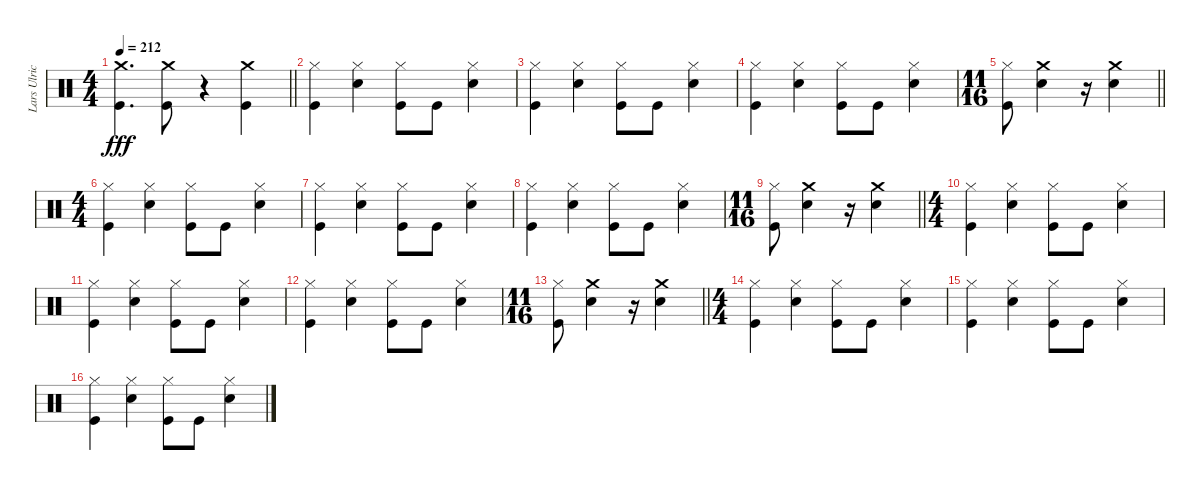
\track ("Lars Ulrich" "Lars Ulric") {instrument percussion}
\staff {score}
\articulation defaults
\ts (4 4)
\tempo 212
\clef neutral
\barLineRight lightlight
\ks c
("Crash medium (hit)" "Kick (hit)").4{d dy fff} ("Crash medium (hit)" "Kick (hit)").8 r.4 ("Kick (hit)" "Crash medium (hit)").4 |
("Hi-Hat (closed)" "Kick (hit)").4 ("Snare (hit) 2" "Hi-Hat (closed)").4 ("Kick (hit)" "Hi-Hat (closed)").8 "Kick (hit)".8 ("Snare (hit) 2" "Hi-Hat (closed)").4 |
("Kick (hit)" "Hi-Hat (closed)").4 ("Snare (hit) 2" "Hi-Hat (closed)").4 ("Kick (hit)" "Hi-Hat (closed)").8 "Kick (hit)".8 ("Hi-Hat (closed)" "Snare (hit) 2").4 |
("Kick (hit)" "Hi-Hat (closed)").4 ("Snare (hit) 2" "Hi-Hat (closed)").4 ("Kick (hit)" "Hi-Hat (closed)").8 "Kick (hit)".8 ("Snare (hit) 2" "Hi-Hat (closed)").4 |
\ts (11 16)
\barLineRight lightlight
("Kick (hit)" "Hi-Hat (closed)").8 ("Snare (hit) 2" "Crash medium (hit)").4 r.16 ("Crash medium (hit)" "Snare (hit) 2").4 |
\ts (4 4)
("Kick (hit)" "Hi-Hat (closed)").4 ("Snare (hit) 2" "Hi-Hat (closed)").4 ("Kick (hit)" "Hi-Hat (closed)").8 "Kick (hit)".8 ("Snare (hit) 2" "Hi-Hat (closed)").4 |
("Hi-Hat (closed)" "Kick (hit)").4 ("Snare (hit) 2" "Hi-Hat (closed)").4 ("Kick (hit)" "Hi-Hat (closed)").8 "Kick (hit)".8 ("Snare (hit) 2" "Hi-Hat (closed)").4 |
("Kick (hit)" "Hi-Hat (closed)").4 ("Hi-Hat (closed)" "Snare (hit) 2").4 ("Kick (hit)" "Hi-Hat (closed)").8 "Kick (hit)".8 ("Snare (hit) 2" "Hi-Hat (closed)").4 |
\ts (11 16)
\barLineRight lightlight
("Kick (hit)" "Hi-Hat (closed)").8 ("Crash medium (hit)" "Snare (hit) 2").4 r.16 ("Crash medium (hit)" "Snare (hit) 2").4 |
\ts (4 4)
("Kick (hit)" "Hi-Hat (closed)").4 ("Hi-Hat (closed)" "Snare (hit) 2").4 ("Kick (hit)" "Hi-Hat (closed)").8 "Kick (hit)".8 ("Snare (hit) 2" "Hi-Hat (closed)").4 |
("Kick (hit)" "Hi-Hat (closed)").4 ("Snare (hit) 2" "Hi-Hat (closed)").4 ("Kick (hit)" "Hi-Hat (closed)").8 "Kick (hit)".8 ("Hi-Hat (closed)" "Snare (hit) 2").4 |
("Kick (hit)" "Hi-Hat (closed)").4 ("Snare (hit) 2" "Hi-Hat (closed)").4 ("Kick (hit)" "Hi-Hat (closed)").8 "Kick (hit)".8 ("Snare (hit) 2" "Hi-Hat (closed)").4 |
\ts (11 16)
\barLineRight lightlight
("Kick (hit)" "Hi-Hat (closed)").8 ("Snare (hit) 2" "Crash medium (hit)").4 r.16 ("Crash medium (hit)" "Snare (hit) 2").4 |
\ts (4 4)
("Kick (hit)" "Hi-Hat (closed)").4 ("Snare (hit) 2" "Hi-Hat (closed)").4 ("Kick (hit)" "Hi-Hat (closed)").8 "Kick (hit)".8 ("Hi-Hat (closed)" "Snare (hit) 2").4 |
("Kick (hit)" "Hi-Hat (closed)").4 ("Snare (hit) 2" "Hi-Hat (closed)").4 ("Kick (hit)" "Hi-Hat (closed)").8 "Kick (hit)".8 ("Snare (hit) 2" "Hi-Hat (closed)").4 |
("Kick (hit)" "Hi-Hat (closed)").4 ("Snare (hit) 2" "Hi-Hat (closed)").4 ("Hi-Hat (closed)" "Kick (hit)").8 "Kick (hit)".8 ("Snare (hit) 2" "Hi-Hat (closed)").4
